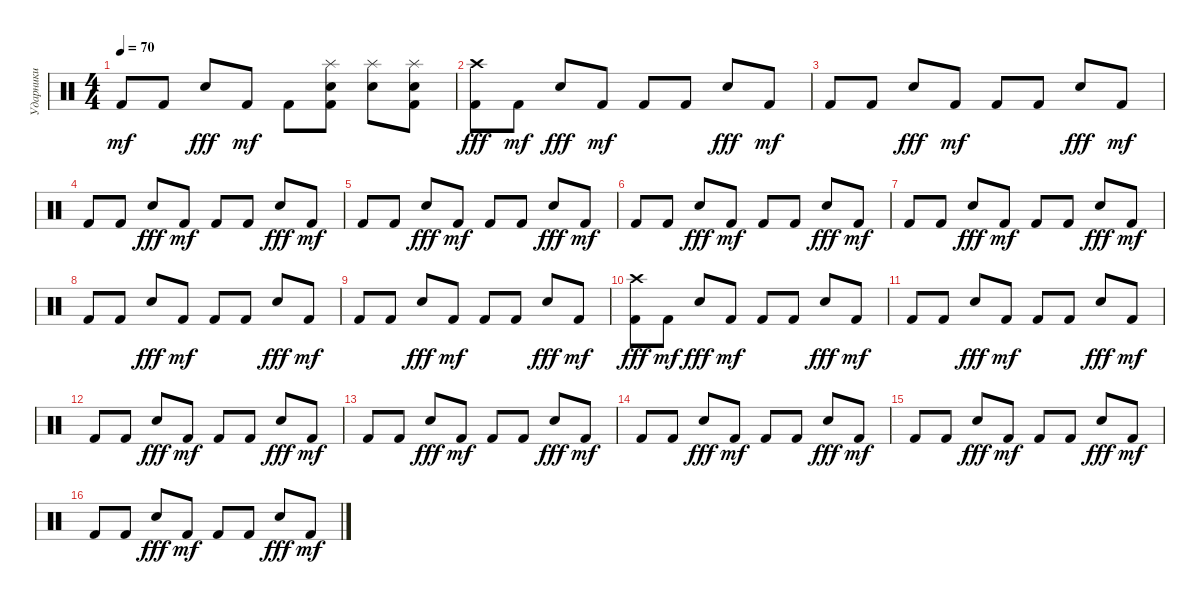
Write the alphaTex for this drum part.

\track ("Ударники" "Ударники") {instrument percussion}
\staff {score}
\articulation defaults
\ts (4 4)
\tempo 70
\clef neutral
\ks c "Kick (hit) 2".8{dy mf} "Kick (hit) 2".8 "Snare (hit) 2".8{dy fff} "Kick (hit) 2".8{dy mf} "Kick (hit) 2".8
("Snare (hit) 2" "Kick (hit) 2" "Splash (hit)").8 ("Snare (hit) 2" "Splash (hit)").8 ("Snare (hit) 2" "Kick (hit) 2" "Splash (hit)").8 |
("Kick (hit) 2" "Crash high (hit)").8{dy fff} "Kick (hit) 2".8{dy mf} "Snare (hit) 2".8{dy fff} "Kick (hit) 2".8{dy mf} "Kick (hit) 2".8 "Kick (hit) 2".8 "Snare (hit) 2".8{dy fff} "Kick (hit) 2".8{dy mf} |
"Kick (hit) 2".8 "Kick (hit) 2".8 "Snare (hit) 2".8{dy fff} "Kick (hit) 2".8{dy mf} "Kick (hit) 2".8 "Kick (hit) 2".8 "Snare (hit) 2".8{dy fff} "Kick (hit) 2".8{dy mf} |
"Kick (hit) 2".8 "Kick (hit) 2".8 "Snare (hit) 2".8{dy fff} "Kick (hit) 2".8{dy mf} "Kick (hit) 2".8 "Kick (hit) 2".8 "Snare (hit) 2".8{dy fff} "Kick (hit) 2".8{dy mf} |
"Kick (hit) 2".8 "Kick (hit) 2".8 "Snare (hit) 2".8{dy fff} "Kick (hit) 2".8{dy mf} "Kick (hit) 2".8 "Kick (hit) 2".8 "Snare (hit) 2".8{dy fff} "Kick (hit) 2".8{dy mf} |
"Kick (hit) 2".8 "Kick (hit) 2".8 "Snare (hit) 2".8{dy fff} "Kick (hit) 2".8{dy mf} "Kick (hit) 2".8 "Kick (hit) 2".8 "Snare (hit) 2".8{dy fff} "Kick (hit) 2".8{dy mf} |
"Kick (hit) 2".8 "Kick (hit) 2".8 "Snare (hit) 2".8{dy fff} "Kick (hit) 2".8{dy mf} "Kick (hit) 2".8 "Kick (hit) 2".8 "Snare (hit) 2".8{dy fff} "Kick (hit) 2".8{dy mf} |
"Kick (hit) 2".8 "Kick (hit) 2".8 "Snare (hit) 2".8{dy fff} "Kick (hit) 2".8{dy mf} "Kick (hit) 2".8 "Kick (hit) 2".8 "Snare (hit) 2".8{dy fff} "Kick (hit) 2".8{dy mf} |
"Kick (hit) 2".8 "Kick (hit) 2".8 "Snare (hit) 2".8{dy fff} "Kick (hit) 2".8{dy mf} "Kick (hit) 2".8 "Kick (hit) 2".8 "Snare (hit) 2".8{dy fff} "Kick (hit) 2".8{dy mf} |
("Kick (hit) 2" "Crash high (hit)").8{dy fff} "Kick (hit) 2".8{dy mf} "Snare (hit) 2".8{dy fff} "Kick (hit) 2".8{dy mf} "Kick (hit) 2".8 "Kick (hit) 2".8 "Snare (hit) 2".8{dy fff} "Kick (hit) 2".8{dy mf} |
"Kick (hit) 2".8 "Kick (hit) 2".8 "Snare (hit) 2".8{dy fff} "Kick (hit) 2".8{dy mf} "Kick (hit) 2".8 "Kick (hit) 2".8 "Snare (hit) 2".8{dy fff} "Kick (hit) 2".8{dy mf} |
"Kick (hit) 2".8 "Kick (hit) 2".8 "Snare (hit) 2".8{dy fff} "Kick (hit) 2".8{dy mf} "Kick (hit) 2".8 "Kick (hit) 2".8 "Snare (hit) 2".8{dy fff} "Kick (hit) 2".8{dy mf} |
"Kick (hit) 2".8 "Kick (hit) 2".8 "Snare (hit) 2".8{dy fff} "Kick (hit) 2".8{dy mf} "Kick (hit) 2".8 "Kick (hit) 2".8 "Snare (hit) 2".8{dy fff} "Kick (hit) 2".8{dy mf} |
"Kick (hit) 2".8 "Kick (hit) 2".8 "Snare (hit) 2".8{dy fff} "Kick (hit) 2".8{dy mf} "Kick (hit) 2".8 "Kick (hit) 2".8 "Snare (hit) 2".8{dy fff} "Kick (hit) 2".8{dy mf} |
"Kick (hit) 2".8 "Kick (hit) 2".8 "Snare (hit) 2".8{dy fff} "Kick (hit) 2".8{dy mf} "Kick (hit) 2".8 "Kick (hit) 2".8 "Snare (hit) 2".8{dy fff} "Kick (hit) 2".8{dy mf} |
"Kick (hit) 2".8 "Kick (hit) 2".8 "Snare (hit) 2".8{dy fff} "Kick (hit) 2".8{dy mf} "Kick (hit) 2".8 "Kick (hit) 2".8 "Snare (hit) 2".8{dy fff} "Kick (hit) 2".8{dy mf}
